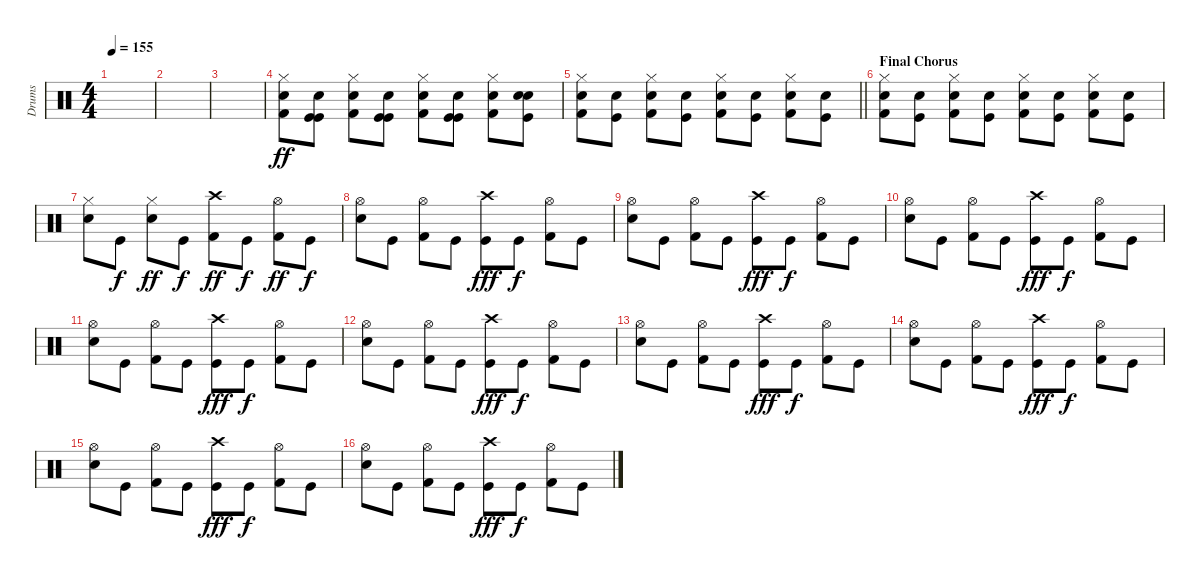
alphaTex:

\track ("Drums" "Drums") {instrument percussion}
\staff {score}
\articulation defaults
\ts (4 4)
\tempo 155
\clef neutral
\ks c
|
|
|
("Kick (hit) 2" "Snare (hit) 2" "Hi-Hat (closed)").8{dy ff volume 8} ("Kick (hit)" "Snare (hit) 2" "Kick (hit)").8 ("Kick (hit) 2" "Snare (hit) 2" "Hi-Hat (closed)").8 ("Kick (hit)" "Snare (hit) 2" "Kick (hit)").8 ("Kick (hit) 2" "Snare (hit) 2" "Hi-Hat (closed)").8 ("Kick (hit)" "Snare (hit) 2" "Kick (hit)").8 ("Kick (hit) 2" "Snare (hit) 2" "Hi-Hat (closed)").8 ("Kick (hit)" "Snare (hit) 2" "Snare (hit) 2").8 |
\barLineRight lightlight
("Kick (hit) 2" "Snare (hit) 2" "Hi-Hat (closed)").8 ("Kick (hit)" "Snare (hit) 2").8 ("Kick (hit) 2" "Snare (hit) 2" "Hi-Hat (closed)").8 ("Kick (hit)" "Snare (hit) 2").8 ("Kick (hit) 2" "Snare (hit) 2" "Hi-Hat (closed)").8 ("Kick (hit)" "Snare (hit) 2").8 ("Kick (hit) 2" "Snare (hit) 2" "Hi-Hat (closed)").8 ("Kick (hit)" "Snare (hit) 2").8 |
\section ("" "Final Chorus")
("Kick (hit) 2" "Snare (hit) 2" "Hi-Hat (closed)").8 ("Kick (hit)" "Snare (hit) 2").8 ("Kick (hit) 2" "Snare (hit) 2" "Hi-Hat (closed)").8 ("Kick (hit)" "Snare (hit) 2").8 ("Kick (hit) 2" "Snare (hit) 2" "Hi-Hat (closed)").8 ("Kick (hit)" "Snare (hit) 2").8 ("Kick (hit) 2" "Snare (hit) 2" "Hi-Hat (closed)").8 ("Kick (hit)" "Snare (hit) 2").8 |
("Electric Snare (hit)" "Hi-Hat (closed)").8 "Kick (hit)".8{dy f} ("Electric Snare (hit)" "Hi-Hat (closed)").8{dy ff} "Kick (hit)".8{dy f} ("Kick (hit) 2" "Crash high (hit)").8{dy ff} "Kick (hit)".8{dy f} ("Kick (hit) 2" "Hi-Hat (open)").8{dy ff} "Kick (hit)".8{dy f} |
("Electric Snare (hit)" "Hi-Hat (open)").8 "Kick (hit)".8 ("Kick (hit) 2" "Hi-Hat (open)").8 "Kick (hit)".8 ("Kick (hit)" "Crash high (hit)").8{dy fff} "Kick (hit)".8{dy f} ("Kick (hit) 2" "Hi-Hat (open)").8 "Kick (hit)".8 |
("Electric Snare (hit)" "Hi-Hat (open)").8 "Kick (hit)".8 ("Kick (hit) 2" "Hi-Hat (open)").8 "Kick (hit)".8 ("Kick (hit)" "Crash high (hit)").8{dy fff} "Kick (hit)".8{dy f} ("Kick (hit) 2" "Hi-Hat (open)").8 "Kick (hit)".8 |
("Electric Snare (hit)" "Hi-Hat (open)").8 "Kick (hit)".8 ("Kick (hit) 2" "Hi-Hat (open)").8 "Kick (hit)".8 ("Kick (hit)" "Crash high (hit)").8{dy fff} "Kick (hit)".8{dy f} ("Kick (hit) 2" "Hi-Hat (open)").8 "Kick (hit)".8 |
("Electric Snare (hit)" "Hi-Hat (open)").8 "Kick (hit)".8 ("Kick (hit) 2" "Hi-Hat (open)").8 "Kick (hit)".8 ("Kick (hit)" "Crash high (hit)").8{dy fff} "Kick (hit)".8{dy f} ("Kick (hit) 2" "Hi-Hat (open)").8 "Kick (hit)".8 |
("Electric Snare (hit)" "Hi-Hat (open)").8 "Kick (hit)".8 ("Kick (hit) 2" "Hi-Hat (open)").8 "Kick (hit)".8 ("Kick (hit)" "Crash high (hit)").8{dy fff} "Kick (hit)".8{dy f} ("Kick (hit) 2" "Hi-Hat (open)").8 "Kick (hit)".8 |
("Electric Snare (hit)" "Hi-Hat (open)").8 "Kick (hit)".8 ("Kick (hit) 2" "Hi-Hat (open)").8 "Kick (hit)".8 ("Kick (hit)" "Crash high (hit)").8{dy fff} "Kick (hit)".8{dy f} ("Kick (hit) 2" "Hi-Hat (open)").8 "Kick (hit)".8 |
("Electric Snare (hit)" "Hi-Hat (open)").8 "Kick (hit)".8 ("Kick (hit) 2" "Hi-Hat (open)").8 "Kick (hit)".8 ("Kick (hit)" "Crash high (hit)").8{dy fff} "Kick (hit)".8{dy f} ("Kick (hit) 2" "Hi-Hat (open)").8 "Kick (hit)".8 |
("Electric Snare (hit)" "Hi-Hat (open)").8 "Kick (hit)".8 ("Kick (hit) 2" "Hi-Hat (open)").8 "Kick (hit)".8 ("Kick (hit)" "Crash high (hit)").8{dy fff} "Kick (hit)".8{dy f} ("Kick (hit) 2" "Hi-Hat (open)").8 "Kick (hit)".8 |
("Electric Snare (hit)" "Hi-Hat (open)").8 "Kick (hit)".8 ("Kick (hit) 2" "Hi-Hat (open)").8 "Kick (hit)".8 ("Kick (hit)" "Crash high (hit)").8{dy fff} "Kick (hit)".8{dy f} ("Kick (hit) 2" "Hi-Hat (open)").8 "Kick (hit)".8
